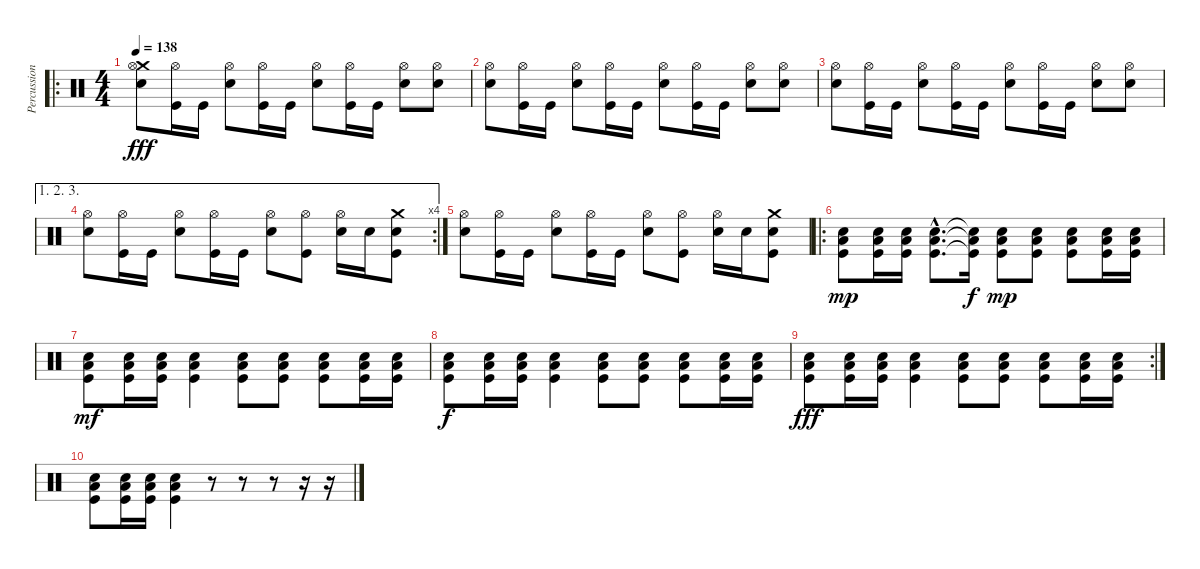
\track ("Percussion" "Percussion") {instrument percussion}
\staff {score}
\articulation defaults
\ro
\ts (4 4)
\tempo 138
\clef neutral
\ks c
("Crash medium (hit)" "Snare (hit) 2" "Hi-Hat (open)").8{dy fff} ("Kick (hit)" "Hi-Hat (open)").16 "Kick (hit)".16 ("Snare (hit) 2" "Hi-Hat (open)").8 ("Kick (hit)" "Hi-Hat (open)").16 "Kick (hit)".16 ("Snare (hit) 2" "Hi-Hat (open)").8 ("Kick (hit)" "Hi-Hat (open)").16 "Kick (hit)".16 ("Snare (hit) 2" "Hi-Hat (open)").8 ("Snare (hit) 2" "Hi-Hat (open)").8 |
("Snare (hit) 2" "Hi-Hat (open)").8 ("Kick (hit)" "Hi-Hat (open)").16 "Kick (hit)".16 ("Snare (hit) 2" "Hi-Hat (open)").8 ("Kick (hit)" "Hi-Hat (open)").16 "Kick (hit)".16 ("Snare (hit) 2" "Hi-Hat (open)").8 ("Kick (hit)" "Hi-Hat (open)").16 "Kick (hit)".16 ("Snare (hit) 2" "Hi-Hat (open)").8 ("Snare (hit) 2" "Hi-Hat (open)").8 |
("Snare (hit) 2" "Hi-Hat (open)").8 ("Kick (hit)" "Hi-Hat (open)").16 "Kick (hit)".16 ("Snare (hit) 2" "Hi-Hat (open)").8 ("Kick (hit)" "Hi-Hat (open)").16 "Kick (hit)".16 ("Snare (hit) 2" "Hi-Hat (open)").8 ("Kick (hit)" "Hi-Hat (open)").16 "Kick (hit)".16 ("Snare (hit) 2" "Hi-Hat (open)").8 ("Snare (hit) 2" "Hi-Hat (open)").8 |
\ae (1 2 3)
\rc 4
("Snare (hit) 2" "Hi-Hat (open)").8 ("Kick (hit)" "Hi-Hat (open)").16 "Kick (hit)".16 ("Snare (hit) 2" "Hi-Hat (open)").8 ("Kick (hit)" "Hi-Hat (open)").16 "Kick (hit)".16 ("Snare (hit) 2" "Hi-Hat (open)").8 ("Kick (hit)" "Hi-Hat (open)").8 ("Snare (hit) 2" "Hi-Hat (open)").16 "Snare (hit) 2".16 ("Crash medium (hit)" "Snare (hit) 2" "Kick (hit)").8 |
("Snare (hit) 2" "Hi-Hat (open)").8 ("Kick (hit)" "Hi-Hat (open)").16 "Kick (hit)".16 ("Snare (hit) 2" "Hi-Hat (open)").8 ("Kick (hit)" "Hi-Hat (open)").16 "Kick (hit)".16 ("Snare (hit) 2" "Hi-Hat (open)").8 ("Kick (hit)" "Hi-Hat (open)").8 ("Snare (hit) 2" "Hi-Hat (open)").16 "Snare (hit) 2".16 ("Crash medium (hit)" "Snare (hit) 2" "Kick (hit)").8 |
\ro
("Snare (hit) 2" "Low Floor Tom (hit)" "Kick (hit)").8{dy mp} ("Snare (hit) 2" "Low Floor Tom (hit)" "Kick (hit)").16 ("Snare (hit) 2" "Low Floor Tom (hit)" "Kick (hit)").16 ("Snare (hit) 2"{hac} "Low Floor Tom (hit)"{hac} "Kick (hit)"{hac}).8{d} ("Snare (hit) 2"{t} "Low Floor Tom (hit)"{t} "Kick (hit)"{t}).16{dy f} ("Snare (hit) 2" "Low Floor Tom (hit)" "Kick (hit)").8{dy mp} ("Snare (hit) 2" "Low Floor Tom (hit)" "Kick (hit)").8 ("Snare (hit) 2" "Low Floor Tom (hit)" "Kick (hit)").8 ("Snare (hit) 2" "Low Floor Tom (hit)" "Kick (hit)").16 ("Snare (hit) 2" "Low Floor Tom (hit)" "Kick (hit)").16 |
("Snare (hit) 2" "Low Floor Tom (hit)" "Kick (hit)").8{dy mf} ("Snare (hit) 2" "Low Floor Tom (hit)" "Kick (hit)").16 ("Snare (hit) 2" "Low Floor Tom (hit)" "Kick (hit)").16 ("Snare (hit) 2" "Low Floor Tom (hit)" "Kick (hit)").4 ("Snare (hit) 2" "Low Floor Tom (hit)" "Kick (hit)").8 ("Snare (hit) 2" "Low Floor Tom (hit)" "Kick (hit)").8 ("Snare (hit) 2" "Low Floor Tom (hit)" "Kick (hit)").8 ("Snare (hit) 2" "Low Floor Tom (hit)" "Kick (hit)").16 ("Snare (hit) 2" "Low Floor Tom (hit)" "Kick (hit)").16 |
("Snare (hit) 2" "Low Floor Tom (hit)" "Kick (hit)").8{dy f} ("Snare (hit) 2" "Low Floor Tom (hit)" "Kick (hit)").16 ("Snare (hit) 2" "Low Floor Tom (hit)" "Kick (hit)").16 ("Snare (hit) 2" "Low Floor Tom (hit)" "Kick (hit)").4 ("Snare (hit) 2" "Low Floor Tom (hit)" "Kick (hit)").8 ("Snare (hit) 2" "Low Floor Tom (hit)" "Kick (hit)").8 ("Snare (hit) 2" "Low Floor Tom (hit)" "Kick (hit)").8 ("Snare (hit) 2" "Low Floor Tom (hit)" "Kick (hit)").16 ("Snare (hit) 2" "Low Floor Tom (hit)" "Kick (hit)").16 |
\rc 2
("Snare (hit) 2" "Low Floor Tom (hit)" "Kick (hit)").8{dy fff} ("Snare (hit) 2" "Low Floor Tom (hit)" "Kick (hit)").16 ("Snare (hit) 2" "Low Floor Tom (hit)" "Kick (hit)").16 ("Snare (hit) 2" "Low Floor Tom (hit)" "Kick (hit)").4 ("Snare (hit) 2" "Low Floor Tom (hit)" "Kick (hit)").8 ("Snare (hit) 2" "Low Floor Tom (hit)" "Kick (hit)").8 ("Snare (hit) 2" "Low Floor Tom (hit)" "Kick (hit)").8 ("Snare (hit) 2" "Low Floor Tom (hit)" "Kick (hit)").16 ("Snare (hit) 2" "Low Floor Tom (hit)" "Kick (hit)").16 |
("Snare (hit) 2" "Low Floor Tom (hit)" "Kick (hit)").8 ("Snare (hit) 2" "Low Floor Tom (hit)" "Kick (hit)").16 ("Snare (hit) 2" "Low Floor Tom (hit)" "Kick (hit)").16 ("Snare (hit) 2" "Low Floor Tom (hit)" "Kick (hit)").4 r.8 r.8 r.8 r.16 r.16
